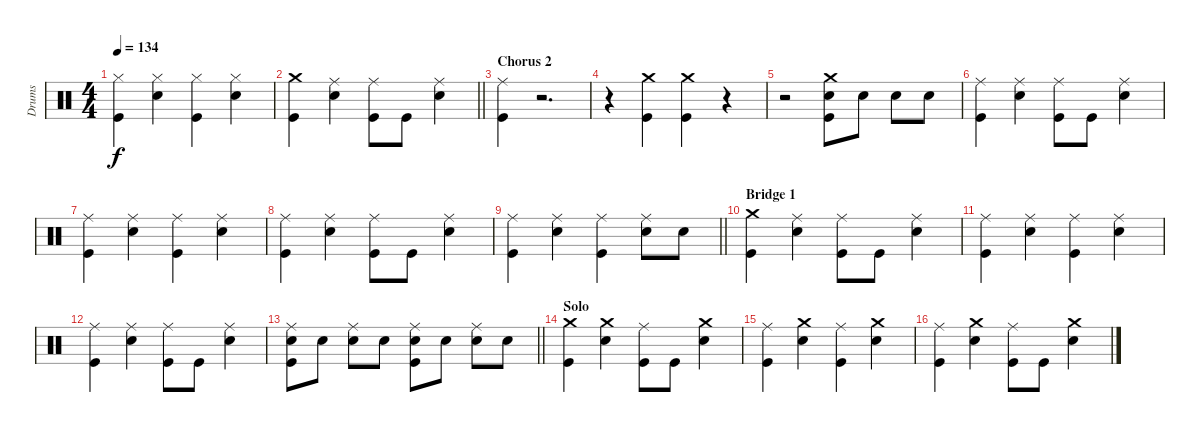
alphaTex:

\track ("Drums" "Drums") {instrument percussion}
\staff {score}
\articulation defaults
\ts (4 4)
\tempo 134
\clef neutral
\ks c
("Hi-Hat (closed)" "Kick (hit)").4{dy f} ("Hi-Hat (closed)" "Snare (hit) 2").4 ("Hi-Hat (closed)" "Kick (hit)").4 ("Hi-Hat (closed)" "Snare (hit) 2").4 |
\barLineRight lightlight
("Crash medium (hit)" "Kick (hit)").4 ("Ride (middle)" "Snare (hit) 2").4 ("Ride (middle)" "Kick (hit)").8 "Kick (hit)".8 ("Ride (middle)" "Snare (hit) 2").4 |
\section ("" "Chorus 2")
("Ride (middle)" "Kick (hit)").4 r.2{d} |
r.4 ("Crash medium (hit)" "Kick (hit)").4 ("Crash medium (hit)" "Kick (hit)").4 r.4 |
r.2 ("Crash medium (hit)" "Snare (hit) 2" "Kick (hit)").8 "Snare (hit) 2".8 "Snare (hit) 2".8 "Snare (hit) 2".8 |
("Ride (middle)" "Kick (hit)").4 ("Ride (middle)" "Snare (hit) 2").4 ("Ride (middle)" "Kick (hit)").8 "Kick (hit)".8 ("Ride (middle)" "Snare (hit) 2").4 |
("Ride (middle)" "Kick (hit)").4 ("Ride (middle)" "Snare (hit) 2").4 ("Ride (middle)" "Kick (hit)").4 ("Ride (middle)" "Snare (hit) 2").4 |
("Ride (middle)" "Kick (hit)").4 ("Ride (middle)" "Snare (hit) 2").4 ("Ride (middle)" "Kick (hit)").8 "Kick (hit)".8 ("Ride (middle)" "Snare (hit) 2").4 |
\barLineRight lightlight
("Ride (middle)" "Kick (hit)").4 ("Ride (middle)" "Snare (hit) 2").4 ("Ride (middle)" "Kick (hit)").4 ("Ride (middle)" "Snare (hit) 2").8 "Snare (hit) 2".8 |
\section ("" "Bridge 1")
("Crash medium (hit)" "Kick (hit)").4 ("Ride (middle)" "Snare (hit) 2").4 ("Ride (middle)" "Kick (hit)").8 "Kick (hit)".8 ("Ride (middle)" "Snare (hit) 2").4 |
("Ride (middle)" "Kick (hit)").4 ("Ride (middle)" "Snare (hit) 2").4 ("Ride (middle)" "Kick (hit)").4 ("Ride (middle)" "Snare (hit) 2").4 |
("Ride (middle)" "Kick (hit)").4 ("Ride (middle)" "Snare (hit) 2").4 ("Ride (middle)" "Kick (hit)").8 "Kick (hit)".8 ("Ride (middle)" "Snare (hit) 2").4 |
\barLineRight lightlight
("Ride (middle)" "Snare (hit) 2" "Kick (hit)").8 "Snare (hit) 2".8 ("Ride (middle)" "Snare (hit) 2").8 "Snare (hit) 2".8 ("Ride (middle)" "Snare (hit) 2" "Kick (hit)").8 "Snare (hit) 2".8 ("Ride (middle)" "Snare (hit) 2").8 "Snare (hit) 2".8 |
\section ("" "Solo")
("Crash medium (hit)" "Kick (hit)").4 ("Crash medium (hit)" "Snare (hit) 2").4 ("Ride (middle)" "Kick (hit)").8 "Kick (hit)".8 ("Crash medium (hit)" "Snare (hit) 2").4 |
("Ride (middle)" "Kick (hit)").4 ("Crash medium (hit)" "Snare (hit) 2").4 ("Ride (middle)" "Kick (hit)").4 ("Crash medium (hit)" "Snare (hit) 2").4 |
("Ride (middle)" "Kick (hit)").4 ("Crash medium (hit)" "Snare (hit) 2").4 ("Ride (middle)" "Kick (hit)").8 "Kick (hit)".8 ("Crash medium (hit)" "Snare (hit) 2").4
